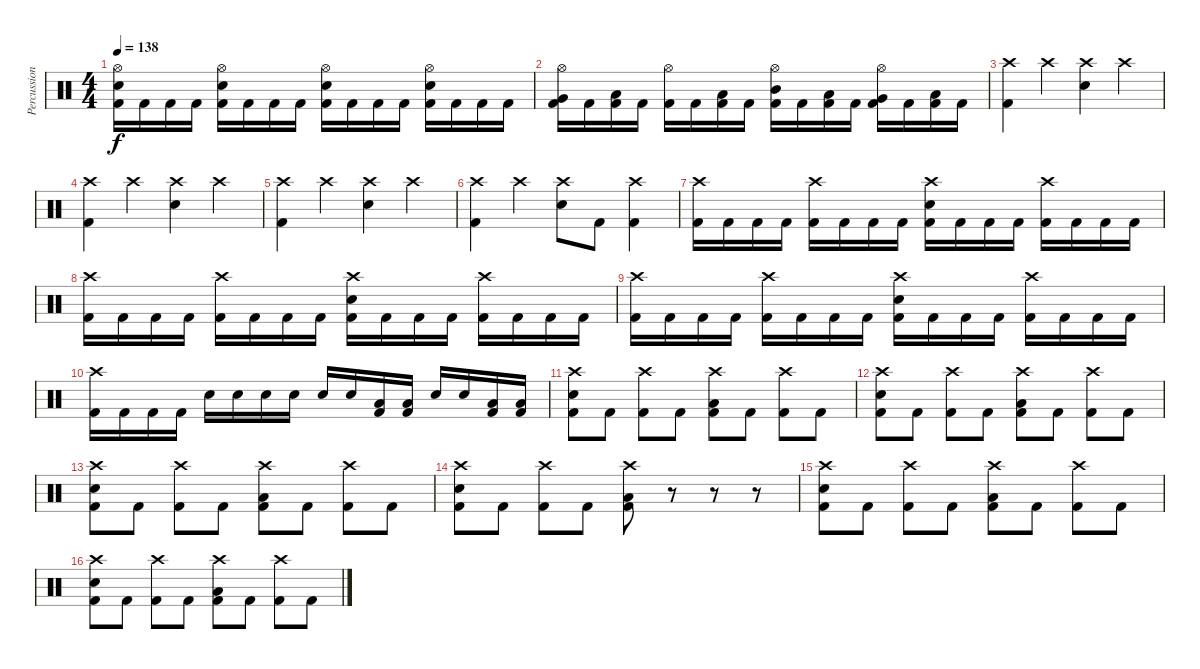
\track ("Percussion" "Percussion") {instrument percussion}
\staff {score}
\articulation defaults
\ts (4 4)
\tempo 138
\clef neutral
\ks c
("Hi-Hat (open)" "Electric Snare (hit)" "Kick (hit) 2").16{dy f} "Kick (hit) 2".16 "Kick (hit) 2".16 "Kick (hit) 2".16 ("Hi-Hat (open)" "Electric Snare (hit)" "Kick (hit) 2").16 "Kick (hit) 2".16 "Kick (hit) 2".16 "Kick (hit) 2".16 ("Hi-Hat (open)" "Electric Snare (hit)" "Kick (hit) 2").16 "Kick (hit) 2".16 "Kick (hit) 2".16 "Kick (hit) 2".16 ("Hi-Hat (open)" "Electric Snare (hit)" "Kick (hit) 2").16 "Kick (hit) 2".16 "Kick (hit) 2".16 "Kick (hit) 2".16 |
("Hi-Hat (open)" "Very Low Tom (hit)" "Kick (hit) 2").16 "Kick (hit) 2".16 ("Low Tom (hit)" "Kick (hit) 2").16 "Kick (hit) 2".16 ("Hi-Hat (open)" "Kick (hit) 2").16 "Kick (hit) 2".16 ("Low Floor Tom (hit)" "Kick (hit) 2").16 "Kick (hit) 2".16 ("Hi-Hat (open)" "Mid Tom (hit)" "Kick (hit) 2").16 "Kick (hit) 2".16 ("Low Tom (hit)" "Kick (hit) 2").16 "Kick (hit) 2".16 ("Hi-Hat (open)" "Very Low Tom (hit)" "Kick (hit) 2").16 "Kick (hit) 2".16 ("Low Tom (hit)" "Kick (hit) 2").16 "Kick (hit) 2".16 |
("Crash high (hit)" "Kick (hit) 2").4 "Crash high (hit)".4 ("Crash high (hit)" "Electric Snare (hit)").4 "Crash high (hit)".4 |
("Crash high (hit)" "Kick (hit) 2").4 "Crash high (hit)".4 ("Crash high (hit)" "Electric Snare (hit)").4 "Crash high (hit)".4 |
("Crash high (hit)" "Kick (hit) 2").4 "Crash high (hit)".4 ("Crash high (hit)" "Electric Snare (hit)").4 "Crash high (hit)".4 |
("Crash high (hit)" "Kick (hit) 2").4 "Crash high (hit)".4 ("Crash high (hit)" "Electric Snare (hit)").8 "Kick (hit) 2".8 ("Crash high (hit)" "Kick (hit) 2").4 |
("Crash high (hit)" "Kick (hit) 2").16 "Kick (hit) 2".16 "Kick (hit) 2".16 "Kick (hit) 2".16 ("Crash high (hit)" "Kick (hit) 2").16 "Kick (hit) 2".16 "Kick (hit) 2".16 "Kick (hit) 2".16 ("Crash high (hit)" "Electric Snare (hit)" "Kick (hit) 2").16 "Kick (hit) 2".16 "Kick (hit) 2".16 "Kick (hit) 2".16 ("Crash high (hit)" "Kick (hit) 2").16 "Kick (hit) 2".16 "Kick (hit) 2".16 "Kick (hit) 2".16 |
("Crash high (hit)" "Kick (hit) 2").16 "Kick (hit) 2".16 "Kick (hit) 2".16 "Kick (hit) 2".16 ("Crash high (hit)" "Kick (hit) 2").16 "Kick (hit) 2".16 "Kick (hit) 2".16 "Kick (hit) 2".16 ("Crash high (hit)" "Electric Snare (hit)" "Kick (hit) 2").16 "Kick (hit) 2".16 "Kick (hit) 2".16 "Kick (hit) 2".16 ("Crash high (hit)" "Kick (hit) 2").16 "Kick (hit) 2".16 "Kick (hit) 2".16 "Kick (hit) 2".16 |
("Crash high (hit)" "Kick (hit) 2").16 "Kick (hit) 2".16 "Kick (hit) 2".16 "Kick (hit) 2".16 ("Crash high (hit)" "Kick (hit) 2").16 "Kick (hit) 2".16 "Kick (hit) 2".16 "Kick (hit) 2".16 ("Crash high (hit)" "Electric Snare (hit)" "Kick (hit) 2").16 "Kick (hit) 2".16 "Kick (hit) 2".16 "Kick (hit) 2".16 ("Crash high (hit)" "Kick (hit) 2").16 "Kick (hit) 2".16 "Kick (hit) 2".16 "Kick (hit) 2".16 |
("Crash high (hit)" "Kick (hit) 2").16 "Kick (hit) 2".16 "Kick (hit) 2".16 "Kick (hit) 2".16 "Electric Snare (hit)".16 "Electric Snare (hit)".16 "Electric Snare (hit)".16 "Electric Snare (hit)".16 "Electric Snare (hit)".16 "Electric Snare (hit)".16 ("Low Tom (hit)" "Kick (hit) 2").16 ("Low Tom (hit)" "Kick (hit) 2").16 "Electric Snare (hit)".16 "Electric Snare (hit)".16 ("Low Tom (hit)" "Kick (hit) 2").16 ("Low Tom (hit)" "Kick (hit) 2").16 |
("Crash high (hit)" "Electric Snare (hit)" "Kick (hit) 2").8 "Kick (hit) 2".8 ("Crash high (hit)" "Kick (hit) 2").8 "Kick (hit) 2".8 ("Crash high (hit)" "Low Tom (hit)" "Kick (hit) 2").8 "Kick (hit) 2".8 ("Crash high (hit)" "Kick (hit) 2").8 "Kick (hit) 2".8 |
("Crash high (hit)" "Electric Snare (hit)" "Kick (hit) 2").8 "Kick (hit) 2".8 ("Crash high (hit)" "Kick (hit) 2").8 "Kick (hit) 2".8 ("Crash high (hit)" "Low Tom (hit)" "Kick (hit) 2").8 "Kick (hit) 2".8 ("Crash high (hit)" "Kick (hit) 2").8 "Kick (hit) 2".8 |
("Crash high (hit)" "Electric Snare (hit)" "Kick (hit) 2").8 "Kick (hit) 2".8 ("Crash high (hit)" "Kick (hit) 2").8 "Kick (hit) 2".8 ("Crash high (hit)" "Low Tom (hit)" "Kick (hit) 2").8 "Kick (hit) 2".8 ("Crash high (hit)" "Kick (hit) 2").8 "Kick (hit) 2".8 |
("Crash high (hit)" "Electric Snare (hit)" "Kick (hit) 2").8 "Kick (hit) 2".8 ("Crash high (hit)" "Kick (hit) 2").8 "Kick (hit) 2".8 ("Crash high (hit)" "Low Tom (hit)" "Kick (hit) 2").8 r.8 r.8 r.8 |
("Crash high (hit)" "Electric Snare (hit)" "Kick (hit) 2").8 "Kick (hit) 2".8 ("Crash high (hit)" "Kick (hit) 2").8 "Kick (hit) 2".8 ("Crash high (hit)" "Low Tom (hit)" "Kick (hit) 2").8 "Kick (hit) 2".8 ("Crash high (hit)" "Kick (hit) 2").8 "Kick (hit) 2".8 |
("Crash high (hit)" "Electric Snare (hit)" "Kick (hit) 2").8 "Kick (hit) 2".8 ("Crash high (hit)" "Kick (hit) 2").8 "Kick (hit) 2".8 ("Crash high (hit)" "Low Tom (hit)" "Kick (hit) 2").8 "Kick (hit) 2".8 ("Crash high (hit)" "Kick (hit) 2").8 "Kick (hit) 2".8
